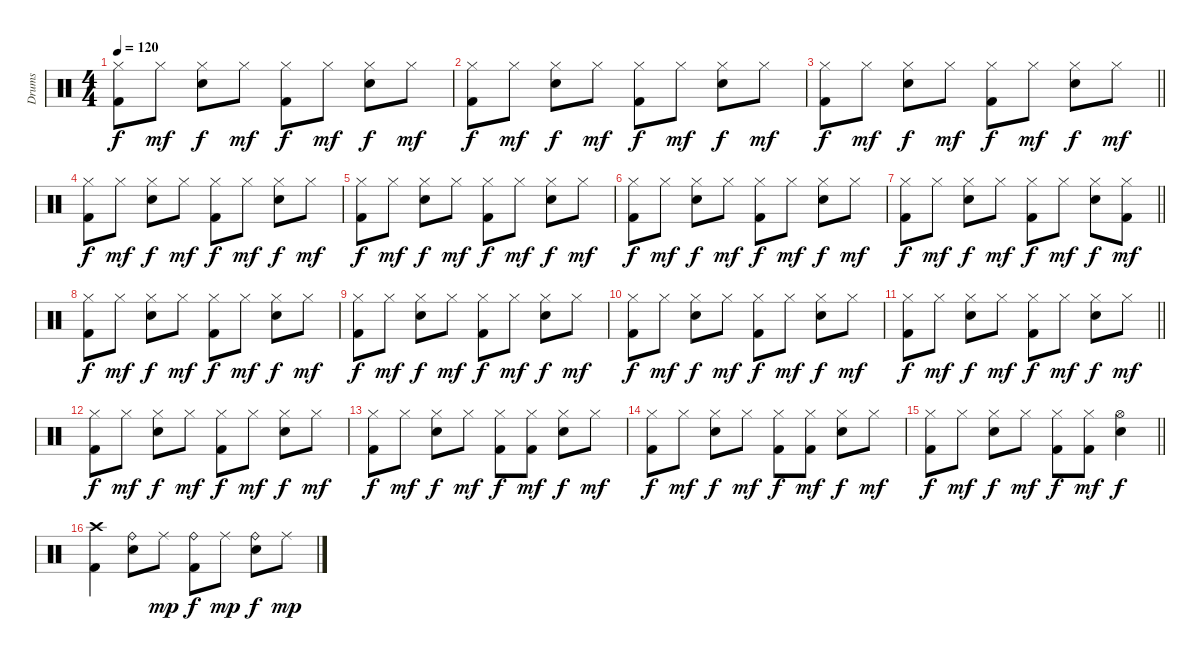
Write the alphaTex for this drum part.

\track ("Drums" "Drums") {instrument percussion}
\staff {score}
\articulation defaults
\ts (4 4)
\tempo 120
\clef neutral
\ks c
("Hi-Hat (closed)" "Kick (hit) 2").8{dy f} "Hi-Hat (closed)".8{dy mf} ("Hi-Hat (closed)" "Snare (hit) 2").8{dy f} "Hi-Hat (closed)".8{dy mf} ("Hi-Hat (closed)" "Kick (hit) 2").8{dy f} "Hi-Hat (closed)".8{dy mf} ("Hi-Hat (closed)" "Snare (hit) 2").8{dy f} "Hi-Hat (closed)".8{dy mf} |
("Hi-Hat (closed)" "Kick (hit) 2").8{dy f} "Hi-Hat (closed)".8{dy mf} ("Hi-Hat (closed)" "Snare (hit) 2").8{dy f} "Hi-Hat (closed)".8{dy mf} ("Hi-Hat (closed)" "Kick (hit) 2").8{dy f} "Hi-Hat (closed)".8{dy mf} ("Hi-Hat (closed)" "Snare (hit) 2").8{dy f} "Hi-Hat (closed)".8{dy mf} |
\barLineRight lightlight
("Hi-Hat (closed)" "Kick (hit) 2").8{dy f} "Hi-Hat (closed)".8{dy mf} ("Hi-Hat (closed)" "Snare (hit) 2").8{dy f} "Hi-Hat (closed)".8{dy mf} ("Hi-Hat (closed)" "Kick (hit) 2").8{dy f} "Hi-Hat (closed)".8{dy mf} ("Hi-Hat (closed)" "Snare (hit) 2").8{dy f} "Hi-Hat (closed)".8{dy mf} |
("Hi-Hat (closed)" "Kick (hit) 2").8{dy f} "Hi-Hat (closed)".8{dy mf} ("Hi-Hat (closed)" "Snare (hit) 2").8{dy f} "Hi-Hat (closed)".8{dy mf} ("Hi-Hat (closed)" "Kick (hit) 2").8{dy f} "Hi-Hat (closed)".8{dy mf} ("Hi-Hat (closed)" "Snare (hit) 2").8{dy f} "Hi-Hat (closed)".8{dy mf} |
("Hi-Hat (closed)" "Kick (hit) 2").8{dy f} "Hi-Hat (closed)".8{dy mf} ("Hi-Hat (closed)" "Snare (hit) 2").8{dy f} "Hi-Hat (closed)".8{dy mf} ("Hi-Hat (closed)" "Kick (hit) 2").8{dy f} "Hi-Hat (closed)".8{dy mf} ("Hi-Hat (closed)" "Snare (hit) 2").8{dy f} "Hi-Hat (closed)".8{dy mf} |
("Hi-Hat (closed)" "Kick (hit) 2").8{dy f} "Hi-Hat (closed)".8{dy mf} ("Hi-Hat (closed)" "Snare (hit) 2").8{dy f} "Hi-Hat (closed)".8{dy mf} ("Hi-Hat (closed)" "Kick (hit) 2").8{dy f} "Hi-Hat (closed)".8{dy mf} ("Hi-Hat (closed)" "Snare (hit) 2").8{dy f} "Hi-Hat (closed)".8{dy mf} |
\barLineRight lightlight
("Hi-Hat (closed)" "Kick (hit) 2").8{dy f} "Hi-Hat (closed)".8{dy mf} ("Hi-Hat (closed)" "Snare (hit) 2").8{dy f} "Hi-Hat (closed)".8{dy mf} ("Hi-Hat (closed)" "Kick (hit) 2").8{dy f} "Hi-Hat (closed)".8{dy mf} ("Hi-Hat (closed)" "Snare (hit) 2").8{dy f} ("Hi-Hat (closed)" "Kick (hit) 2").8{dy mf} |
("Hi-Hat (closed)" "Kick (hit) 2").8{dy f} "Hi-Hat (closed)".8{dy mf} ("Hi-Hat (closed)" "Snare (hit) 2").8{dy f} "Hi-Hat (closed)".8{dy mf} ("Hi-Hat (closed)" "Kick (hit) 2").8{dy f} "Hi-Hat (closed)".8{dy mf} ("Hi-Hat (closed)" "Snare (hit) 2").8{dy f} "Hi-Hat (closed)".8{dy mf} |
("Hi-Hat (closed)" "Kick (hit) 2").8{dy f} "Hi-Hat (closed)".8{dy mf} ("Hi-Hat (closed)" "Snare (hit) 2").8{dy f} "Hi-Hat (closed)".8{dy mf} ("Hi-Hat (closed)" "Kick (hit) 2").8{dy f} "Hi-Hat (closed)".8{dy mf} ("Hi-Hat (closed)" "Snare (hit) 2").8{dy f} "Hi-Hat (closed)".8{dy mf} |
("Hi-Hat (closed)" "Kick (hit) 2").8{dy f} "Hi-Hat (closed)".8{dy mf} ("Hi-Hat (closed)" "Snare (hit) 2").8{dy f} "Hi-Hat (closed)".8{dy mf} ("Hi-Hat (closed)" "Kick (hit) 2").8{dy f} "Hi-Hat (closed)".8{dy mf} ("Hi-Hat (closed)" "Snare (hit) 2").8{dy f} "Hi-Hat (closed)".8{dy mf} |
\barLineRight lightlight
("Hi-Hat (closed)" "Kick (hit) 2").8{dy f} "Hi-Hat (closed)".8{dy mf} ("Hi-Hat (closed)" "Snare (hit) 2").8{dy f} "Hi-Hat (closed)".8{dy mf} ("Hi-Hat (closed)" "Kick (hit) 2").8{dy f} "Hi-Hat (closed)".8{dy mf} ("Hi-Hat (closed)" "Snare (hit) 2").8{dy f} "Hi-Hat (closed)".8{dy mf} |
("Hi-Hat (closed)" "Kick (hit) 2").8{dy f} "Hi-Hat (closed)".8{dy mf} ("Hi-Hat (closed)" "Snare (hit) 2").8{dy f} "Hi-Hat (closed)".8{dy mf} ("Hi-Hat (closed)" "Kick (hit) 2").8{dy f} "Hi-Hat (closed)".8{dy mf} ("Hi-Hat (closed)" "Snare (hit) 2").8{dy f} "Hi-Hat (closed)".8{dy mf} |
("Hi-Hat (closed)" "Kick (hit) 2").8{dy f} "Hi-Hat (closed)".8{dy mf} ("Hi-Hat (closed)" "Snare (hit) 2").8{dy f} "Hi-Hat (closed)".8{dy mf} ("Hi-Hat (closed)" "Kick (hit) 2").8{dy f} ("Hi-Hat (closed)" "Kick (hit) 2").8{dy mf} ("Hi-Hat (closed)" "Snare (hit) 2").8{dy f} "Hi-Hat (closed)".8{dy mf} |
("Hi-Hat (closed)" "Kick (hit) 2").8{dy f} "Hi-Hat (closed)".8{dy mf} ("Hi-Hat (closed)" "Snare (hit) 2").8{dy f} "Hi-Hat (closed)".8{dy mf} ("Hi-Hat (closed)" "Kick (hit) 2").8{dy f} ("Hi-Hat (closed)" "Kick (hit) 2").8{dy mf} ("Hi-Hat (closed)" "Snare (hit) 2").8{dy f} "Hi-Hat (closed)".8{dy mf} |
\barLineRight lightlight
("Hi-Hat (closed)" "Kick (hit) 2").8{dy f} "Hi-Hat (closed)".8{dy mf} ("Hi-Hat (closed)" "Snare (hit) 2").8{dy f} "Hi-Hat (closed)".8{dy mf} ("Hi-Hat (closed)" "Kick (hit) 2").8{dy f} ("Hi-Hat (closed)" "Kick (hit) 2").8{dy mf} ("Hi-Hat (open)" "Snare (hit) 2").4{dy f} |
("Crash high (hit)" "Kick (hit) 2").4 ("Ride (bell)" "Snare (hit) 2").8 "Ride (middle)".8{dy mp} ("Ride (bell)" "Kick (hit) 2").8{dy f} "Ride (middle)".8{dy mp} ("Ride (bell)" "Snare (hit) 2").8{dy f} "Ride (middle)".8{dy mp}
